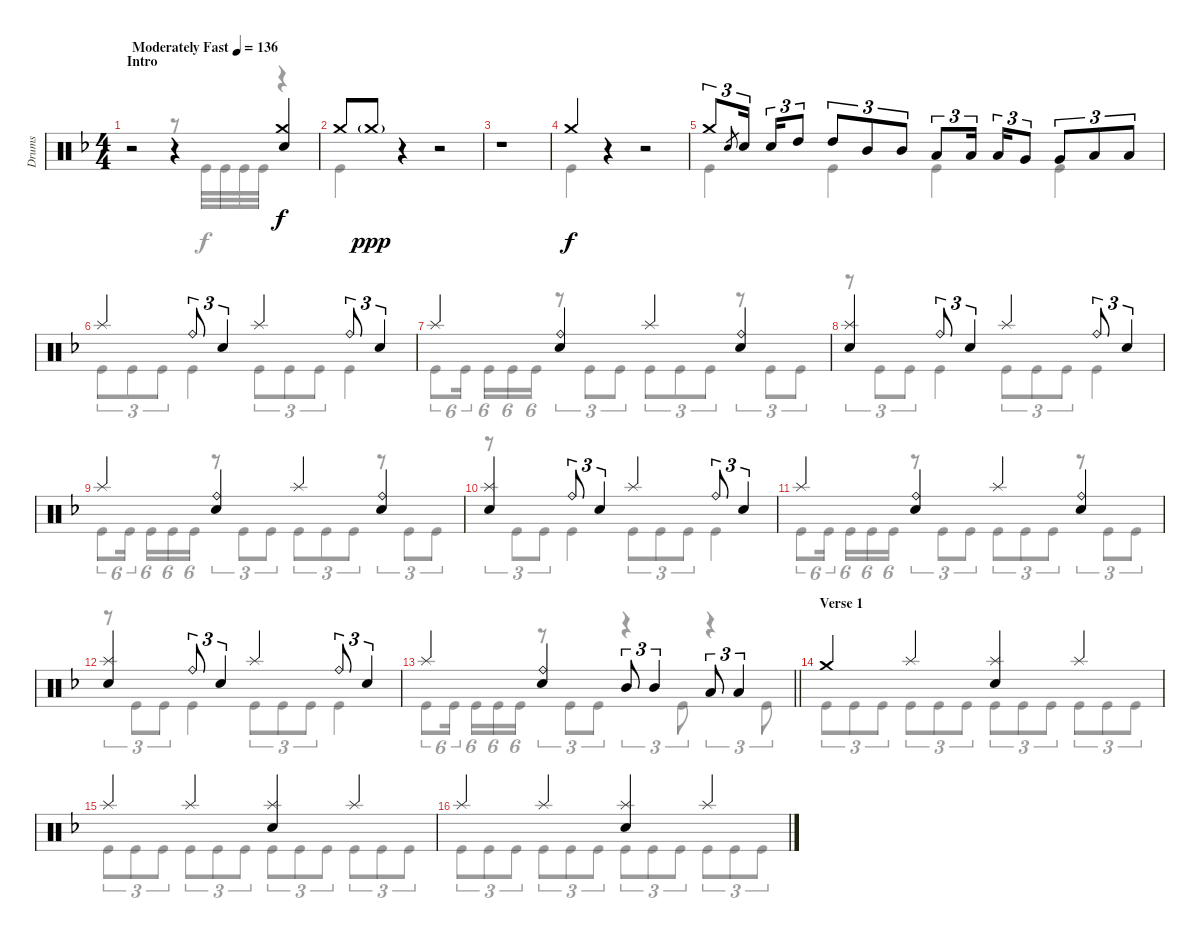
\track ("Drums" "Drums") {instrument percussion}
\staff {score}
\articulation defaults
\voice
\ts (4 4)
\section ("" "Intro")
\tempo (136 "Moderately Fast")
\clef neutral
\ks dminor
r.2{dy f} r.4 ("Crash medium (hit)" "Electric Snare (hit)").4 |
"Crash medium (hit)".8 "Crash medium (hit)"{g}.8{dy ppp} r.4 r.2 |
r.1 |
"Crash medium (hit)".4{dy f} r.4 r.2 |
"Crash medium (hit)".8{tu (3 2)} "Electric Snare (hit)".8{gr} "Electric Snare (hit)".16{tu (3 2)} "Electric Snare (hit)".16{tu (3 2)} "High Tom (hit)".8{tu (3 2)} "High Tom (hit)".8{tu (3 2)} "Mid Tom (hit)".8{tu (3 2)} "Mid Tom (hit)".8{tu (3 2)} "Low Tom (hit)".8{tu (3 2)} "Low Tom (hit)".16{tu (3 2)} "Low Tom (hit)".16{tu (3 2)} "Very Low Tom (hit)".8{tu (3 2)} "Very Low Tom (hit)".8{tu (3 2)} "Low Floor Tom (hit)".8{tu (3 2)} "Low Floor Tom (hit)".8{tu (3 2)} |
"Splash (hit)".4 "Ride (bell)".8{tu (3 2)} "Electric Snare (hit)".4{tu (3 2)} "Splash (hit)".4 "Ride (bell)".8{tu (3 2)} "Electric Snare (hit)".4{tu (3 2)} |
"Splash (hit)".4 ("Ride (bell)" "Electric Snare (hit)").4 "Splash (hit)".4 ("Ride (bell)" "Electric Snare (hit)").4 |
("Splash (hit)" "Electric Snare (hit)").4 "Ride (bell)".8{tu (3 2)} "Electric Snare (hit)".4{tu (3 2)} "Splash (hit)".4 "Ride (bell)".8{tu (3 2)} "Electric Snare (hit)".4{tu (3 2)} |
"Splash (hit)".4 ("Ride (bell)" "Electric Snare (hit)").4 "Splash (hit)".4 ("Ride (bell)" "Electric Snare (hit)").4 |
("Splash (hit)" "Electric Snare (hit)").4 "Ride (bell)".8{tu (3 2)} "Electric Snare (hit)".4{tu (3 2)} "Splash (hit)".4 "Ride (bell)".8{tu (3 2)} "Electric Snare (hit)".4{tu (3 2)} |
"Splash (hit)".4 ("Ride (bell)" "Electric Snare (hit)").4 "Splash (hit)".4 ("Ride (bell)" "Electric Snare (hit)").4 |
("Splash (hit)" "Electric Snare (hit)").4 "Ride (bell)".8{tu (3 2)} "Electric Snare (hit)".4{tu (3 2)} "Splash (hit)".4 "Ride (bell)".8{tu (3 2)} "Electric Snare (hit)".4{tu (3 2)} |
\barLineRight lightlight "Splash (hit)".4
("Ride (bell)" "Electric Snare (hit)").4 "Mid Tom (hit)".8{tu (3 2)} "Mid Tom (hit)".4{tu (3 2)} "Low Tom (hit)".8{tu (3 2)} "Low Tom (hit)".4{tu (3 2)} |
\section ("" "Verse 1")
"Crash medium (hit)".4 "Splash (hit)".4 ("Splash (hit)" "Electric Snare (hit)").4 "Splash (hit)".4 |
"Splash (hit)".4 "Splash (hit)".4 ("Splash (hit)" "Electric Snare (hit)").4 "Splash (hit)".4 |
"Splash (hit)".4 "Splash (hit)".4 ("Splash (hit)" "Electric Snare (hit)").4 "Splash (hit)".4
\voice
\clef neutral
\ottava regular
\simile none
\ks dminor
r.2{dy f} r.8 "Kick (hit)".32 "Kick (hit)".32 "Kick (hit)".32 "Kick (hit)".32 r.4 |
"Kick (hit)".4 r.4 r.2 |
r.1 |
"Kick (hit)".4 r.4 r.2 |
"Kick (hit)".4 "Kick (hit)".4 "Kick (hit)".4 "Kick (hit)".4 |
"Kick (hit)".8{tu (3 2)} "Kick (hit)".8{tu (3 2)} "Kick (hit)".8{tu (3 2)} "Kick (hit)".4 "Kick (hit)".8{tu (3 2)} "Kick (hit)".8{tu (3 2)} "Kick (hit)".8{tu (3 2)} "Kick (hit)".4 |
"Kick (hit)".8{tu (6 4)} "Kick (hit)".16{tu (6 4)} "Kick (hit)".16{tu (6 4)} "Kick (hit)".16{tu (6 4)} "Kick (hit)".16{tu (6 4)} r.8{tu (3 2)} "Kick (hit)".8{tu (3 2)} "Kick (hit)".8{tu (3 2)} "Kick (hit)".8{tu (3 2)} "Kick (hit)".8{tu (3 2)} "Kick (hit)".8{tu (3 2)} r.8{tu (3 2)} "Kick (hit)".8{tu (3 2)} "Kick (hit)".8{tu (3 2)} |
r.8{tu (3 2)} "Kick (hit)".8{tu (3 2)} "Kick (hit)".8{tu (3 2)} "Kick (hit)".4 "Kick (hit)".8{tu (3 2)} "Kick (hit)".8{tu (3 2)} "Kick (hit)".8{tu (3 2)} "Kick (hit)".4 |
"Kick (hit)".8{tu (6 4)} "Kick (hit)".16{tu (6 4)} "Kick (hit)".16{tu (6 4)} "Kick (hit)".16{tu (6 4)} "Kick (hit)".16{tu (6 4)} r.8{tu (3 2)} "Kick (hit)".8{tu (3 2)} "Kick (hit)".8{tu (3 2)} "Kick (hit)".8{tu (3 2)} "Kick (hit)".8{tu (3 2)} "Kick (hit)".8{tu (3 2)} r.8{tu (3 2)} "Kick (hit)".8{tu (3 2)} "Kick (hit)".8{tu (3 2)} |
r.8{tu (3 2)} "Kick (hit)".8{tu (3 2)} "Kick (hit)".8{tu (3 2)} "Kick (hit)".4 "Kick (hit)".8{tu (3 2)} "Kick (hit)".8{tu (3 2)} "Kick (hit)".8{tu (3 2)} "Kick (hit)".4 |
"Kick (hit)".8{tu (6 4)} "Kick (hit)".16{tu (6 4)} "Kick (hit)".16{tu (6 4)} "Kick (hit)".16{tu (6 4)} "Kick (hit)".16{tu (6 4)} r.8{tu (3 2)} "Kick (hit)".8{tu (3 2)} "Kick (hit)".8{tu (3 2)} "Kick (hit)".8{tu (3 2)} "Kick (hit)".8{tu (3 2)} "Kick (hit)".8{tu (3 2)} r.8{tu (3 2)} "Kick (hit)".8{tu (3 2)} "Kick (hit)".8{tu (3 2)} |
r.8{tu (3 2)} "Kick (hit)".8{tu (3 2)} "Kick (hit)".8{tu (3 2)} "Kick (hit)".4 "Kick (hit)".8{tu (3 2)} "Kick (hit)".8{tu (3 2)} "Kick (hit)".8{tu (3 2)} "Kick (hit)".4 |
\barLineRight lightlight "Kick (hit)".8{tu (6 4)} "Kick (hit)".16{tu (6 4)} "Kick (hit)".16{tu (6 4)} "Kick (hit)".16{tu (6 4)} "Kick (hit)".16{tu (6 4)}
r.8{tu (3 2)} "Kick (hit)".8{tu (3 2)} "Kick (hit)".8{tu (3 2)} r.4{tu (3 2)} "Kick (hit)".8{tu (3 2)} r.4{tu (3 2)} "Kick (hit)".8{tu (3 2)} |
"Kick (hit)".8{tu (3 2)} "Kick (hit)".8{tu (3 2)} "Kick (hit)".8{tu (3 2)} "Kick (hit)".8{tu (3 2)} "Kick (hit)".8{tu (3 2)} "Kick (hit)".8{tu (3 2)} "Kick (hit)".8{tu (3 2)} "Kick (hit)".8{tu (3 2)} "Kick (hit)".8{tu (3 2)} "Kick (hit)".8{tu (3 2)} "Kick (hit)".8{tu (3 2)} "Kick (hit)".8{tu (3 2)} |
"Kick (hit)".8{tu (3 2)} "Kick (hit)".8{tu (3 2)} "Kick (hit)".8{tu (3 2)} "Kick (hit)".8{tu (3 2)} "Kick (hit)".8{tu (3 2)} "Kick (hit)".8{tu (3 2)} "Kick (hit)".8{tu (3 2)} "Kick (hit)".8{tu (3 2)} "Kick (hit)".8{tu (3 2)} "Kick (hit)".8{tu (3 2)} "Kick (hit)".8{tu (3 2)} "Kick (hit)".8{tu (3 2)} |
"Kick (hit)".8{tu (3 2)} "Kick (hit)".8{tu (3 2)} "Kick (hit)".8{tu (3 2)} "Kick (hit)".8{tu (3 2)} "Kick (hit)".8{tu (3 2)} "Kick (hit)".8{tu (3 2)} "Kick (hit)".8{tu (3 2)} "Kick (hit)".8{tu (3 2)} "Kick (hit)".8{tu (3 2)} "Kick (hit)".8{tu (3 2)} "Kick (hit)".8{tu (3 2)} "Kick (hit)".8{tu (3 2)}
